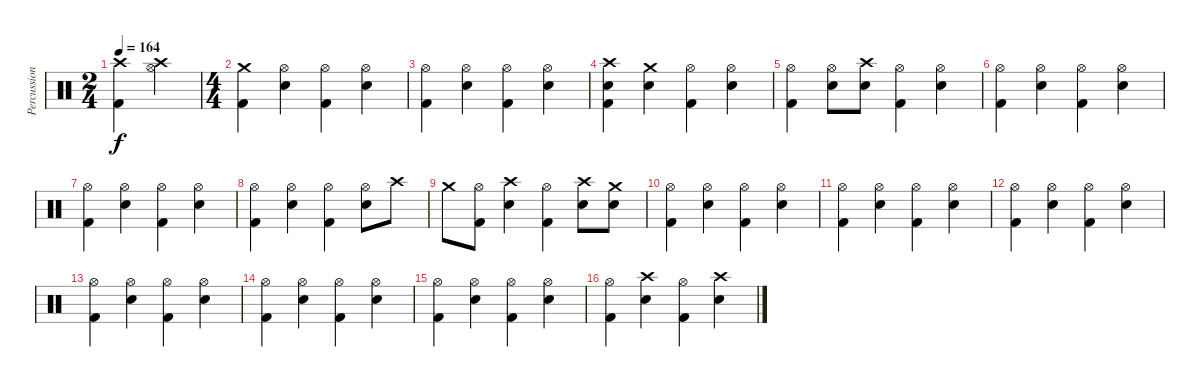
\track ("Percussions" "Percussion") {instrument percussion}
\staff {score}
\articulation defaults
\ts (2 4)
\tempo 164
\clef neutral
\ks c
("Crash high (hit)" "Kick (hit) 2").4{dy f} ("Crash high (hit)" "Hi-Hat (open)").4 |
\ts (4 4)
("Crash medium (hit)" "Kick (hit) 2").4 ("Hi-Hat (open)" "Snare (hit) 2").4 ("Hi-Hat (open)" "Kick (hit) 2").4 ("Hi-Hat (open)" "Snare (hit) 2").4 |
("Hi-Hat (open)" "Kick (hit) 2").4 ("Hi-Hat (open)" "Snare (hit) 2").4 ("Hi-Hat (open)" "Kick (hit) 2").4 ("Hi-Hat (open)" "Snare (hit) 2").4 |
("Crash high (hit)" "Snare (hit) 2" "Kick (hit) 2").4 ("Crash medium (hit)" "Snare (hit) 2").4 ("Hi-Hat (open)" "Kick (hit) 2").4 ("Hi-Hat (open)" "Snare (hit) 2").4 |
("Hi-Hat (open)" "Kick (hit) 2").4 ("Hi-Hat (open)" "Snare (hit) 2").8 ("Crash high (hit)" "Snare (hit) 2").8 ("Hi-Hat (open)" "Kick (hit) 2").4 ("Hi-Hat (open)" "Snare (hit) 2").4 |
("Hi-Hat (open)" "Kick (hit) 2").4 ("Hi-Hat (open)" "Snare (hit) 2").4 ("Hi-Hat (open)" "Kick (hit) 2").4 ("Hi-Hat (open)" "Snare (hit) 2").4 |
("Hi-Hat (open)" "Kick (hit) 2").4 ("Hi-Hat (open)" "Snare (hit) 2").4 ("Hi-Hat (open)" "Kick (hit) 2").4 ("Hi-Hat (open)" "Snare (hit) 2").4 |
("Hi-Hat (open)" "Kick (hit) 2").4 ("Hi-Hat (open)" "Snare (hit) 2").4 ("Hi-Hat (open)" "Kick (hit) 2").4 ("Hi-Hat (open)" "Snare (hit) 2").8 "Crash high (hit)".8 |
"Crash medium (hit)".8 ("Hi-Hat (open)" "Kick (hit) 2").8 ("Crash high (hit)" "Snare (hit) 2").4 ("Hi-Hat (open)" "Kick (hit) 2").4 ("Crash high (hit)" "Snare (hit) 2").8 ("Crash medium (hit)" "Snare (hit) 2").8 |
("Hi-Hat (open)" "Kick (hit) 2").4 ("Hi-Hat (open)" "Snare (hit) 2").4 ("Hi-Hat (open)" "Kick (hit) 2").4 ("Hi-Hat (open)" "Snare (hit) 2").4 |
("Hi-Hat (open)" "Kick (hit) 2").4 ("Hi-Hat (open)" "Snare (hit) 2").4 ("Hi-Hat (open)" "Kick (hit) 2").4 ("Hi-Hat (open)" "Snare (hit) 2").4 |
("Hi-Hat (open)" "Kick (hit) 2").4 ("Hi-Hat (open)" "Snare (hit) 2").4 ("Hi-Hat (open)" "Kick (hit) 2").4 ("Hi-Hat (open)" "Snare (hit) 2").4 |
("Hi-Hat (open)" "Kick (hit) 2").4 ("Hi-Hat (open)" "Snare (hit) 2").4 ("Hi-Hat (open)" "Kick (hit) 2").4 ("Hi-Hat (open)" "Snare (hit) 2").4 |
("Hi-Hat (open)" "Kick (hit) 2").4 ("Hi-Hat (open)" "Snare (hit) 2").4 ("Hi-Hat (open)" "Kick (hit) 2").4 ("Hi-Hat (open)" "Snare (hit) 2").4 |
("Hi-Hat (open)" "Kick (hit) 2").4 ("Hi-Hat (open)" "Snare (hit) 2").4 ("Hi-Hat (open)" "Kick (hit) 2").4 ("Hi-Hat (open)" "Snare (hit) 2").4 |
("Hi-Hat (open)" "Kick (hit) 2").4 ("Crash high (hit)" "Snare (hit) 2").4 ("Hi-Hat (open)" "Kick (hit) 2").4 ("Crash high (hit)" "Snare (hit) 2").4
